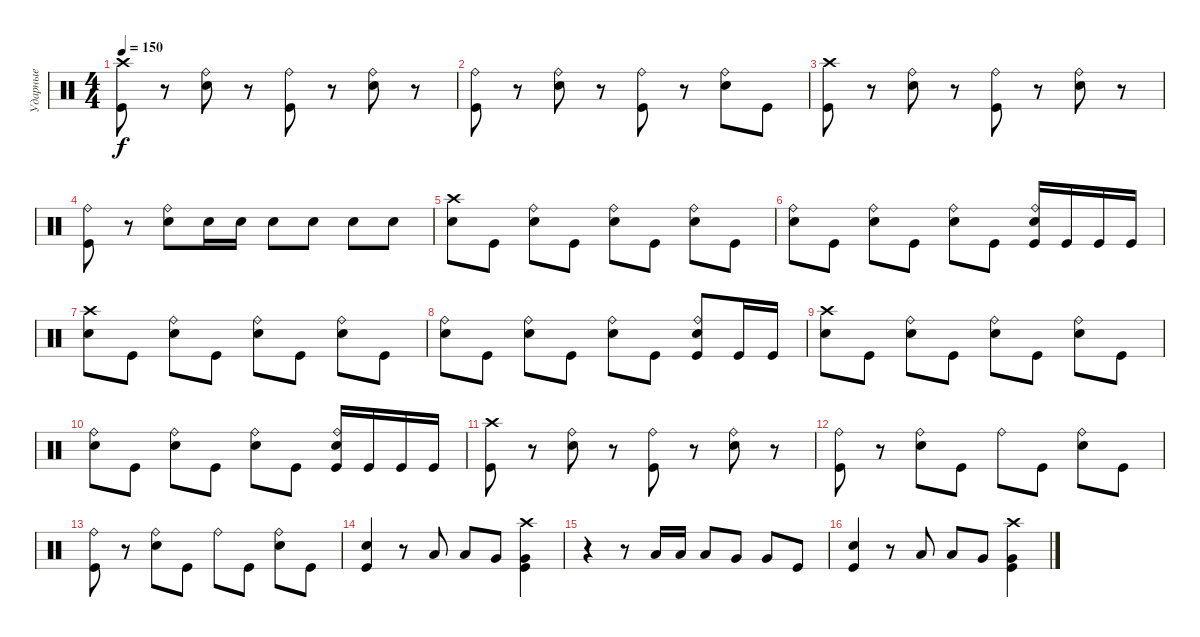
\track ("Ударные" "Ударные") {instrument percussion}
\staff {score}
\articulation defaults
\ts (4 4)
\tempo 150
\clef neutral
\ks c
("Crash high (hit)" "Kick (hit)").8{dy f} r.8 ("Ride (bell)" "Electric Snare (hit)").8 r.8 ("Ride (bell)" "Kick (hit)").8 r.8 ("Ride (bell)" "Electric Snare (hit)").8 r.8 |
("Ride (bell)" "Kick (hit)").8 r.8 ("Ride (bell)" "Electric Snare (hit)").8 r.8 ("Ride (bell)" "Kick (hit)").8 r.8 ("Ride (bell)" "Electric Snare (hit)").8 "Kick (hit)".8 |
("Crash high (hit)" "Kick (hit)").8 r.8 ("Ride (bell)" "Electric Snare (hit)").8 r.8 ("Ride (bell)" "Kick (hit)").8 r.8 ("Ride (bell)" "Electric Snare (hit)").8 r.8 |
("Ride (bell)" "Kick (hit)").8 r.8 ("Ride (bell)" "Electric Snare (hit)").8 "Electric Snare (hit)".16 "Electric Snare (hit)".16 "Electric Snare (hit)".8 "Electric Snare (hit)".8 "Electric Snare (hit)".8 "Electric Snare (hit)".8 |
("Crash high (hit)" "Electric Snare (hit)").8 "Kick (hit)".8 ("Ride (bell)" "Electric Snare (hit)").8 "Kick (hit)".8 ("Ride (bell)" "Electric Snare (hit)").8 "Kick (hit)".8 ("Ride (bell)" "Electric Snare (hit)").8 "Kick (hit)".8 |
("Ride (bell)" "Electric Snare (hit)").8 "Kick (hit)".8 ("Ride (bell)" "Electric Snare (hit)").8 "Kick (hit)".8 ("Ride (bell)" "Electric Snare (hit)").8 "Kick (hit)".8 ("Ride (bell)" "Electric Snare (hit)" "Kick (hit)").16 "Kick (hit)".16 "Kick (hit)".16 "Kick (hit)".16 |
("Crash high (hit)" "Electric Snare (hit)").8 "Kick (hit)".8 ("Ride (bell)" "Electric Snare (hit)").8 "Kick (hit)".8 ("Ride (bell)" "Electric Snare (hit)").8 "Kick (hit)".8 ("Ride (bell)" "Electric Snare (hit)").8 "Kick (hit)".8 |
("Ride (bell)" "Electric Snare (hit)").8 "Kick (hit)".8 ("Ride (bell)" "Electric Snare (hit)").8 "Kick (hit)".8 ("Ride (bell)" "Electric Snare (hit)").8 "Kick (hit)".8 ("Ride (bell)" "Electric Snare (hit)" "Kick (hit)").8 "Kick (hit)".16 "Kick (hit)".16 |
("Crash high (hit)" "Electric Snare (hit)").8 "Kick (hit)".8 ("Ride (bell)" "Electric Snare (hit)").8 "Kick (hit)".8 ("Ride (bell)" "Electric Snare (hit)").8 "Kick (hit)".8 ("Ride (bell)" "Electric Snare (hit)").8 "Kick (hit)".8 |
("Ride (bell)" "Electric Snare (hit)").8 "Kick (hit)".8 ("Ride (bell)" "Electric Snare (hit)").8 "Kick (hit)".8 ("Ride (bell)" "Electric Snare (hit)").8 "Kick (hit)".8 ("Ride (bell)" "Electric Snare (hit)" "Kick (hit)").16 "Kick (hit)".16 "Kick (hit)".16 "Kick (hit)".16 |
("Crash high (hit)" "Kick (hit)").8 r.8 ("Ride (bell)" "Electric Snare (hit)").8 r.8 ("Ride (bell)" "Kick (hit)").8 r.8 ("Ride (bell)" "Electric Snare (hit)").8 r.8 |
("Ride (bell)" "Kick (hit)").8 r.8 ("Ride (bell)" "Electric Snare (hit)").8 "Kick (hit)".8 "Ride (bell)".8 "Kick (hit)".8 ("Ride (bell)" "Electric Snare (hit)").8 "Kick (hit)".8 |
("Ride (bell)" "Kick (hit)").8 r.8 ("Ride (bell)" "Electric Snare (hit)").8 "Kick (hit)".8 "Ride (bell)".8 "Kick (hit)".8 ("Ride (bell)" "Electric Snare (hit)").8 "Kick (hit)".8 |
("Electric Snare (hit)" "Kick (hit)").4 r.8 "Low Tom (hit)".8 "Low Tom (hit)".8 "Very Low Tom (hit)".8 ("Crash high (hit)" "Very Low Tom (hit)" "Kick (hit)").4 |
r.4 r.8 "Low Tom (hit)".16 "Low Tom (hit)".16 "Low Tom (hit)".8 "Very Low Tom (hit)".8 "Very Low Tom (hit)".8 "Kick (hit)".8 |
("Electric Snare (hit)" "Kick (hit)").4 r.8 "Low Tom (hit)".8 "Low Tom (hit)".8 "Very Low Tom (hit)".8 ("Crash high (hit)" "Very Low Tom (hit)" "Kick (hit)").4
